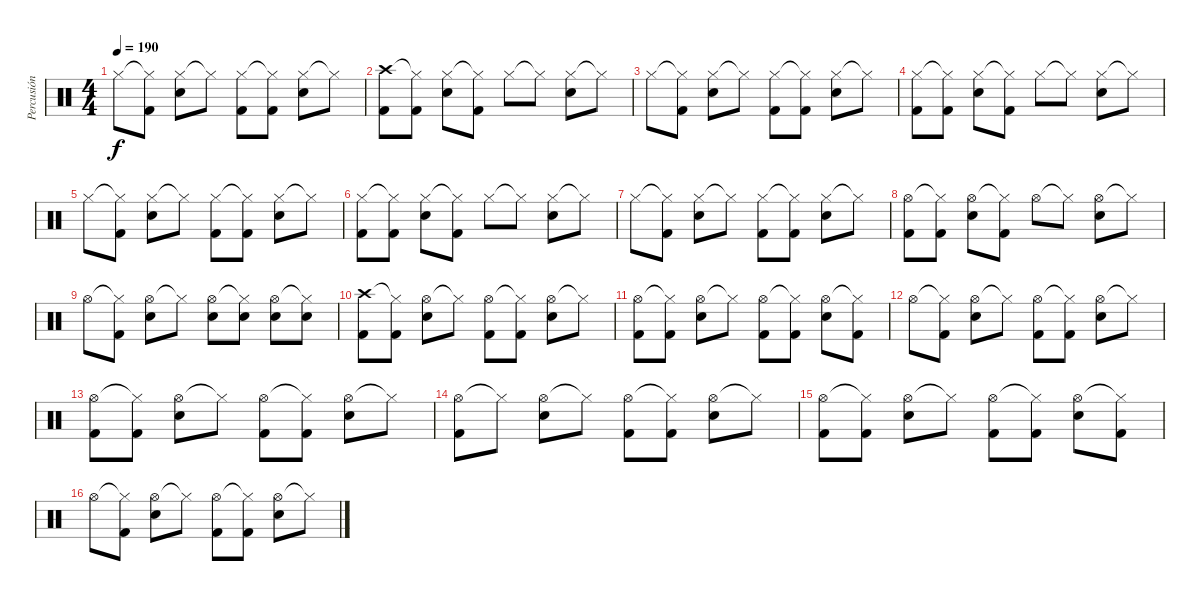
\track ("Percusión" "Percusión") {instrument percussion}
\staff {score}
\articulation defaults
\ts (4 4)
\tempo 190
\clef neutral
\ks c "Hi-Hat (closed)".8{dy f}
("Hi-Hat (closed)"{t} "Kick (hit) 2").8 ("Hi-Hat (closed)" "Snare (hit) 2").8 "Hi-Hat (closed)"{t}.8 ("Hi-Hat (closed)" "Kick (hit) 2").8 ("Hi-Hat (closed)"{t} "Kick (hit) 2").8 ("Hi-Hat (closed)" "Snare (hit) 2").8 "Hi-Hat (closed)"{t}.8 |
("Crash high (hit)" "Kick (hit) 2").8 ("Hi-Hat (closed)"{t} "Kick (hit) 2").8 ("Hi-Hat (closed)" "Snare (hit) 2").8 ("Hi-Hat (closed)"{t} "Kick (hit) 2").8 "Hi-Hat (closed)".8 "Hi-Hat (closed)"{t}.8 ("Hi-Hat (closed)" "Snare (hit) 2").8 "Hi-Hat (closed)"{t}.8 |
"Hi-Hat (closed)".8 ("Hi-Hat (closed)"{t} "Kick (hit) 2").8 ("Hi-Hat (closed)" "Snare (hit) 2").8 "Hi-Hat (closed)"{t}.8 ("Hi-Hat (closed)" "Kick (hit) 2").8 ("Hi-Hat (closed)"{t} "Kick (hit) 2").8 ("Hi-Hat (closed)" "Snare (hit) 2").8 "Hi-Hat (closed)"{t}.8 |
("Hi-Hat (closed)" "Kick (hit) 2").8 ("Hi-Hat (closed)"{t} "Kick (hit) 2").8 ("Hi-Hat (closed)" "Snare (hit) 2").8 ("Hi-Hat (closed)"{t} "Kick (hit) 2").8 "Hi-Hat (closed)".8 "Hi-Hat (closed)"{t}.8 ("Hi-Hat (closed)" "Snare (hit) 2").8 "Hi-Hat (closed)"{t}.8 |
"Hi-Hat (closed)".8 ("Hi-Hat (closed)"{t} "Kick (hit) 2").8 ("Hi-Hat (closed)" "Snare (hit) 2").8 "Hi-Hat (closed)"{t}.8 ("Hi-Hat (closed)" "Kick (hit) 2").8 ("Hi-Hat (closed)"{t} "Kick (hit) 2").8 ("Hi-Hat (closed)" "Snare (hit) 2").8 "Hi-Hat (closed)"{t}.8 |
("Hi-Hat (closed)" "Kick (hit) 2").8 ("Hi-Hat (closed)"{t} "Kick (hit) 2").8 ("Hi-Hat (closed)" "Snare (hit) 2").8 ("Hi-Hat (closed)"{t} "Kick (hit) 2").8 "Hi-Hat (closed)".8 "Hi-Hat (closed)"{t}.8 ("Hi-Hat (closed)" "Snare (hit) 2").8 "Hi-Hat (closed)"{t}.8 |
"Hi-Hat (closed)".8 ("Hi-Hat (closed)"{t} "Kick (hit) 2").8 ("Hi-Hat (closed)" "Snare (hit) 2").8 "Hi-Hat (closed)"{t}.8 ("Hi-Hat (closed)" "Kick (hit) 2").8 ("Hi-Hat (closed)"{t} "Kick (hit) 2").8 ("Hi-Hat (closed)" "Snare (hit) 2").8 "Hi-Hat (closed)"{t}.8 |
("Hi-Hat (open)" "Kick (hit) 2").8 ("Hi-Hat (closed)"{t} "Kick (hit) 2").8 ("Hi-Hat (open)" "Snare (hit) 2").8 ("Hi-Hat (closed)"{t} "Kick (hit) 2").8 "Hi-Hat (open)".8 "Hi-Hat (closed)"{t}.8 ("Hi-Hat (open)" "Snare (hit) 2").8 "Hi-Hat (closed)"{t}.8 |
"Hi-Hat (open)".8 ("Hi-Hat (closed)"{t} "Kick (hit) 2").8 ("Hi-Hat (open)" "Snare (hit) 2").8 "Hi-Hat (closed)"{t}.8 ("Hi-Hat (open)" "Snare (hit) 2").8 ("Hi-Hat (closed)"{t} "Snare (hit) 2").8 ("Hi-Hat (open)" "Snare (hit) 2").8 ("Hi-Hat (closed)"{t} "Snare (hit) 2").8 |
("Crash high (hit)" "Kick (hit) 2").8 ("Hi-Hat (closed)"{t} "Kick (hit) 2").8 ("Hi-Hat (open)" "Snare (hit) 2").8 "Hi-Hat (closed)"{t}.8 ("Hi-Hat (open)" "Kick (hit) 2").8 ("Hi-Hat (closed)"{t} "Kick (hit) 2").8 ("Hi-Hat (open)" "Snare (hit) 2").8 "Hi-Hat (closed)"{t}.8 |
("Hi-Hat (open)" "Kick (hit) 2").8 ("Hi-Hat (closed)"{t} "Kick (hit) 2").8 ("Hi-Hat (open)" "Snare (hit) 2").8 "Hi-Hat (closed)"{t}.8 ("Hi-Hat (open)" "Kick (hit) 2").8 ("Hi-Hat (closed)"{t} "Kick (hit) 2").8 ("Hi-Hat (open)" "Snare (hit) 2").8 ("Hi-Hat (closed)"{t} "Kick (hit) 2").8 |
"Hi-Hat (open)".8 ("Hi-Hat (closed)"{t} "Kick (hit) 2").8 ("Hi-Hat (open)" "Snare (hit) 2").8 "Hi-Hat (closed)"{t}.8 ("Hi-Hat (open)" "Kick (hit) 2").8 ("Hi-Hat (closed)"{t} "Kick (hit) 2").8 ("Hi-Hat (open)" "Snare (hit) 2").8 "Hi-Hat (closed)"{t}.8 |
("Hi-Hat (open)" "Kick (hit) 2").8 ("Hi-Hat (closed)"{t} "Kick (hit) 2").8 ("Hi-Hat (open)" "Snare (hit) 2").8 "Hi-Hat (closed)"{t}.8 ("Hi-Hat (open)" "Kick (hit) 2").8 ("Hi-Hat (closed)"{t} "Kick (hit) 2").8 ("Hi-Hat (open)" "Snare (hit) 2").8 "Hi-Hat (closed)"{t}.8 |
("Hi-Hat (open)" "Kick (hit) 2").8 "Hi-Hat (closed)"{t}.8 ("Hi-Hat (open)" "Snare (hit) 2").8 "Hi-Hat (closed)"{t}.8 ("Hi-Hat (open)" "Kick (hit) 2").8 ("Hi-Hat (closed)"{t} "Kick (hit) 2").8 ("Hi-Hat (open)" "Snare (hit) 2").8 "Hi-Hat (closed)"{t}.8 |
("Hi-Hat (open)" "Kick (hit) 2").8 ("Hi-Hat (closed)"{t} "Kick (hit) 2").8 ("Hi-Hat (open)" "Snare (hit) 2").8 "Hi-Hat (closed)"{t}.8 ("Hi-Hat (open)" "Kick (hit) 2").8 ("Hi-Hat (closed)"{t} "Kick (hit) 2").8 ("Hi-Hat (open)" "Snare (hit) 2").8 ("Hi-Hat (closed)"{t} "Kick (hit) 2").8 |
"Hi-Hat (open)".8 ("Hi-Hat (closed)"{t} "Kick (hit) 2").8 ("Hi-Hat (open)" "Snare (hit) 2").8 "Hi-Hat (closed)"{t}.8 ("Hi-Hat (open)" "Kick (hit) 2").8 ("Hi-Hat (closed)"{t} "Kick (hit) 2").8 ("Hi-Hat (open)" "Snare (hit) 2").8 "Hi-Hat (closed)"{t}.8
